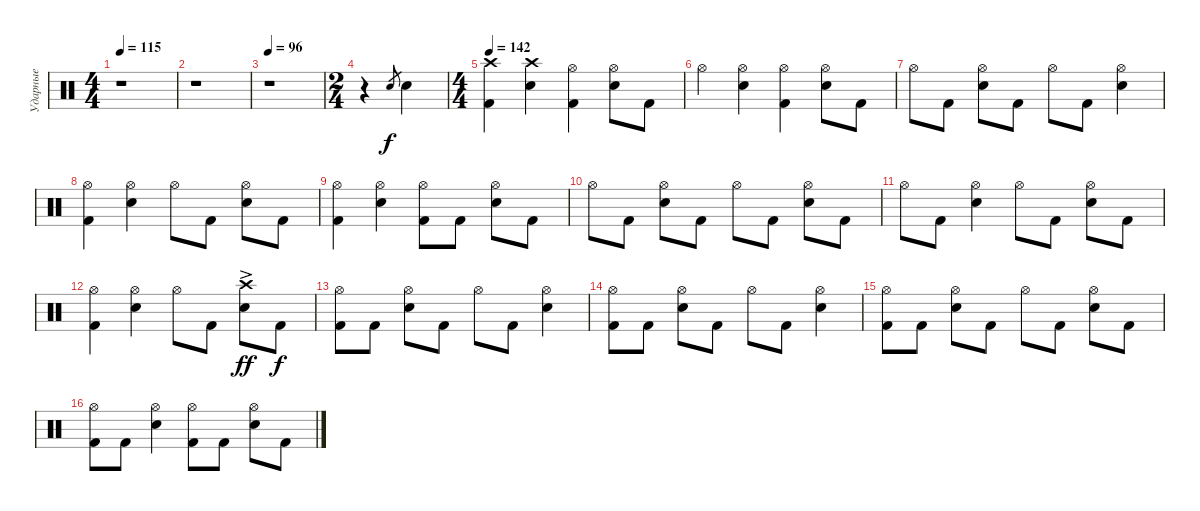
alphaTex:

\track ("Ударные" "Ударные") {instrument percussion}
\staff {score}
\articulation defaults
\ts (4 4)
\tempo 115
\clef neutral
\ks c
r.1{dy ff} |
r.1 |
\tempo 96
r.1 |
\ts (2 4)
r.4 "Snare (hit) 2".8{gr dy f} "Snare (hit) 2".4 |
\ts (4 4)
\tempo 142
("Kick (hit) 2" "Crash high (hit)").4 ("Snare (hit) 2" "Crash high (hit)").4 ("Kick (hit) 2" "Hi-Hat (open)").4 ("Snare (hit) 2" "Hi-Hat (open)").8 "Kick (hit) 2".8 |
"Hi-Hat (open)".4 ("Snare (hit) 2" "Hi-Hat (open)").4 ("Kick (hit) 2" "Hi-Hat (open)").4 ("Snare (hit) 2" "Hi-Hat (open)").8 "Kick (hit) 2".8 |
"Hi-Hat (open)".8 "Kick (hit) 2".8 ("Snare (hit) 2" "Hi-Hat (open)").8 "Kick (hit) 2".8 "Hi-Hat (open)".8 "Kick (hit) 2".8 ("Snare (hit) 2" "Hi-Hat (open)").4 |
("Kick (hit) 2" "Hi-Hat (open)").4 ("Snare (hit) 2" "Hi-Hat (open)").4 "Hi-Hat (open)".8 "Kick (hit) 2".8 ("Snare (hit) 2" "Hi-Hat (open)").8 "Kick (hit) 2".8 |
("Kick (hit) 2" "Hi-Hat (open)").4 ("Snare (hit) 2" "Hi-Hat (open)").4 ("Kick (hit) 2" "Hi-Hat (open)").8 "Kick (hit) 2".8 ("Snare (hit) 2" "Hi-Hat (open)").8 "Kick (hit) 2".8 |
"Hi-Hat (open)".8 "Kick (hit) 2".8 ("Snare (hit) 2" "Hi-Hat (open)").8 "Kick (hit) 2".8 "Hi-Hat (open)".8 "Kick (hit) 2".8 ("Snare (hit) 2" "Hi-Hat (open)").8 "Kick (hit) 2".8 |
"Hi-Hat (open)".8 "Kick (hit) 2".8 ("Snare (hit) 2" "Hi-Hat (open)").4 "Hi-Hat (open)".8 "Kick (hit) 2".8 ("Snare (hit) 2" "Hi-Hat (open)").8 "Kick (hit) 2".8 |
("Kick (hit) 2" "Hi-Hat (open)").4 ("Snare (hit) 2" "Hi-Hat (open)").4 "Hi-Hat (open)".8 "Kick (hit) 2".8 ("Snare (hit) 2" "Crash high (hit)"{ac}).8{dy ff} "Kick (hit) 2".8{dy f} |
("Kick (hit) 2" "Hi-Hat (open)").8 "Kick (hit) 2".8 ("Snare (hit) 2" "Hi-Hat (open)").8 "Kick (hit) 2".8 "Hi-Hat (open)".8 "Kick (hit) 2".8 ("Snare (hit) 2" "Hi-Hat (open)").4 |
("Kick (hit) 2" "Hi-Hat (open)").8 "Kick (hit) 2".8 ("Snare (hit) 2" "Hi-Hat (open)").8 "Kick (hit) 2".8 "Hi-Hat (open)".8 "Kick (hit) 2".8 ("Snare (hit) 2" "Hi-Hat (open)").4 |
("Kick (hit) 2" "Hi-Hat (open)").8 "Kick (hit) 2".8 ("Snare (hit) 2" "Hi-Hat (open)").8 "Kick (hit) 2".8 "Hi-Hat (open)".8 "Kick (hit) 2".8 ("Snare (hit) 2" "Hi-Hat (open)").8 "Kick (hit) 2".8 |
("Kick (hit) 2" "Hi-Hat (open)").8 "Kick (hit) 2".8 ("Snare (hit) 2" "Hi-Hat (open)").4 ("Kick (hit) 2" "Hi-Hat (open)").8 "Kick (hit) 2".8 ("Snare (hit) 2" "Hi-Hat (open)").8 "Kick (hit) 2".8
